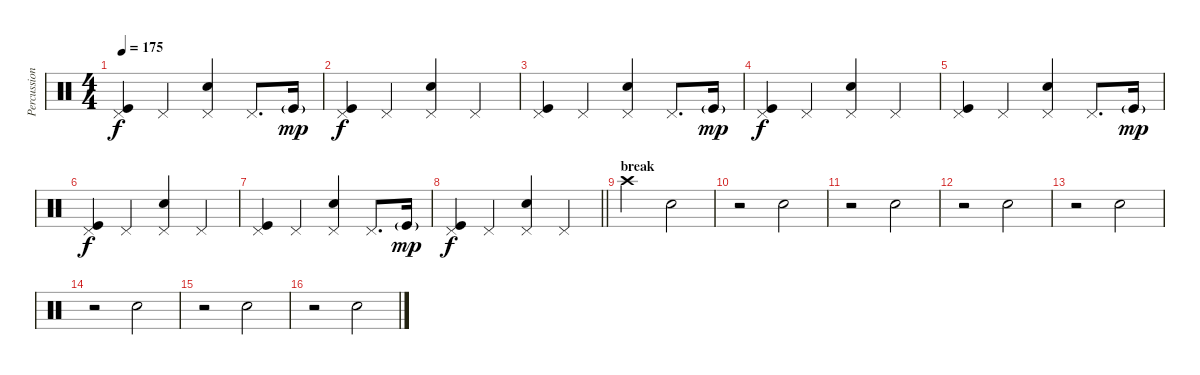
\track ("Percussion" "Percussion") {instrument percussion}
\staff {score}
\articulation defaults
\ts (4 4)
\tempo 175
\clef neutral
\ks c
("Pedal Hi-Hat (hit)" "Kick (hit)").4{dy f} "Pedal Hi-Hat (hit)".4 ("Pedal Hi-Hat (hit)" "Electric Snare (hit)").4 "Pedal Hi-Hat (hit)".8{d} "Kick (hit)"{g}.16{dy mp} |
("Pedal Hi-Hat (hit)" "Kick (hit)").4{dy f} "Pedal Hi-Hat (hit)".4 ("Pedal Hi-Hat (hit)" "Electric Snare (hit)").4 "Pedal Hi-Hat (hit)".4 |
("Pedal Hi-Hat (hit)" "Kick (hit)").4 "Pedal Hi-Hat (hit)".4 ("Pedal Hi-Hat (hit)" "Electric Snare (hit)").4 "Pedal Hi-Hat (hit)".8{d} "Kick (hit)"{g}.16{dy mp} |
("Pedal Hi-Hat (hit)" "Kick (hit)").4{dy f} "Pedal Hi-Hat (hit)".4 ("Pedal Hi-Hat (hit)" "Electric Snare (hit)").4 "Pedal Hi-Hat (hit)".4 |
("Pedal Hi-Hat (hit)" "Kick (hit)").4 "Pedal Hi-Hat (hit)".4 ("Pedal Hi-Hat (hit)" "Electric Snare (hit)").4 "Pedal Hi-Hat (hit)".8{d} "Kick (hit)"{g}.16{dy mp} |
("Pedal Hi-Hat (hit)" "Kick (hit)").4{dy f} "Pedal Hi-Hat (hit)".4 ("Pedal Hi-Hat (hit)" "Electric Snare (hit)").4 "Pedal Hi-Hat (hit)".4 |
("Pedal Hi-Hat (hit)" "Kick (hit)").4 "Pedal Hi-Hat (hit)".4 ("Pedal Hi-Hat (hit)" "Electric Snare (hit)").4 "Pedal Hi-Hat (hit)".8{d} "Kick (hit)"{g}.16{dy mp} |
\barLineRight lightlight
("Pedal Hi-Hat (hit)" "Kick (hit)").4{dy f} "Pedal Hi-Hat (hit)".4 ("Pedal Hi-Hat (hit)" "Electric Snare (hit)").4 "Pedal Hi-Hat (hit)".4 |
\section ("" "break")
"Crash high (hit)".2 "Hand Clap (hit)".2 |
r.2 "Hand Clap (hit)".2 |
r.2 "Hand Clap (hit)".2 |
r.2 "Hand Clap (hit)".2 |
r.2 "Hand Clap (hit)".2 |
r.2 "Hand Clap (hit)".2 |
r.2 "Hand Clap (hit)".2 |
r.2 "Hand Clap (hit)".2
